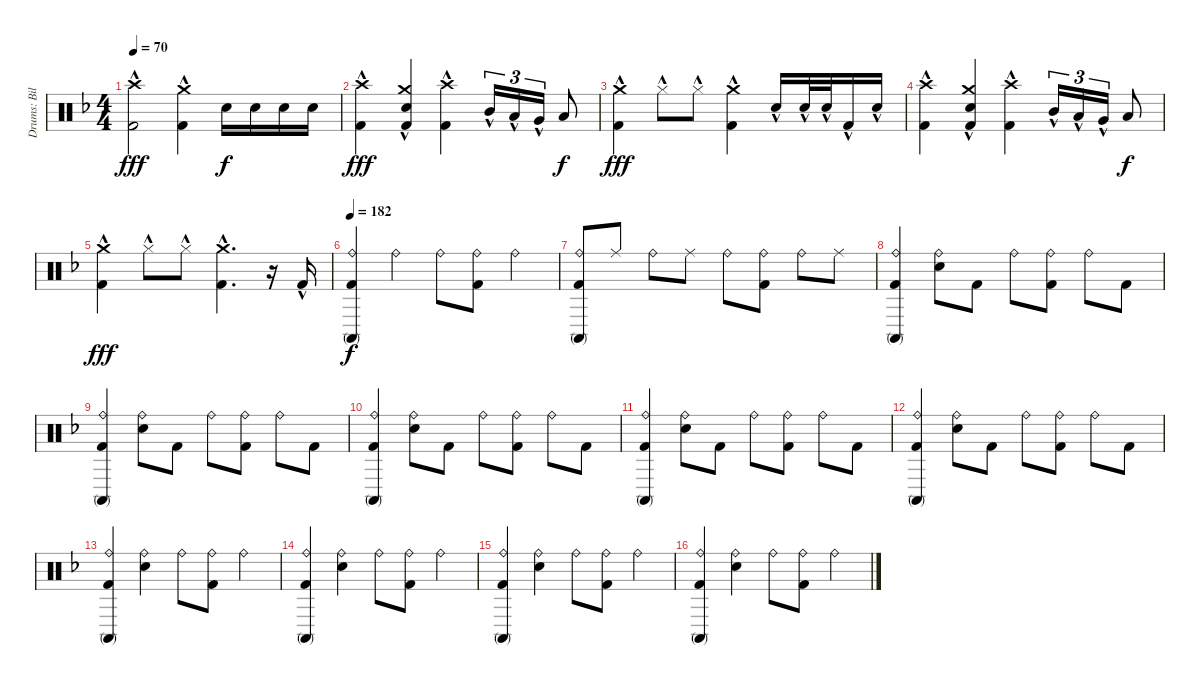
\track ("Drums: Bill" "Drums: Bil") {instrument percussion}
\staff {score}
\articulation defaults
\ts (4 4)
\tempo 70
\clef neutral
\ks f
("Crash high (hit)"{hac} "Kick (hit) 2"{hac}).2{dy fff} ("Crash medium (hit)"{hac} "Kick (hit) 2"{hac}).4 "Electric Snare (hit)".16{dy f} "Electric Snare (hit)".16 "Electric Snare (hit)".16 "Snare (hit) 2".16 |
("Crash high (hit)"{hac} "Kick (hit) 2"{hac}).4{dy fff} ("Crash medium (hit)"{hac} "Snare (hit) 2"{hac} "Kick (hit) 2"{hac}).4 ("Crash high (hit)"{hac} "Kick (hit) 2"{hac}).4 "Mid Tom (hit)"{hac}.16{tu (3 2)} "Low Tom (hit)"{hac}.16{tu (3 2)} "Very Low Tom (hit)"{hac}.16{tu (3 2)} "Low Floor Tom (hit)".8{dy f} |
("Crash medium (hit)"{hac} "Kick (hit) 2"{hac}).4{dy fff} "Hi-Hat (closed)"{hac}.8 "Hi-Hat (closed)"{hac}.8 ("Crash medium (hit)"{hac} "Kick (hit) 2"{hac}).4 "Snare (hit) 2"{hac}.16 "Snare (hit) 2"{hac}.32 "Snare (hit) 2"{hac}.32 "Kick (hit) 2"{hac}.16 "Electric Snare (hit)"{hac}.16 |
("Crash high (hit)"{hac} "Kick (hit) 2"{hac}).4 ("Crash medium (hit)"{hac} "Snare (hit) 2"{hac} "Kick (hit) 2"{hac}).4 ("Crash high (hit)"{hac} "Kick (hit) 2"{hac}).4 "Mid Tom (hit)"{hac}.16{tu (3 2)} "Low Tom (hit)"{hac}.16{tu (3 2)} "Very Low Tom (hit)"{hac}.16{tu (3 2)} "Low Floor Tom (hit)".8{dy f} |
("Crash medium (hit)"{hac} "Kick (hit) 2"{hac}).4{dy fff} "Hi-Hat (closed)"{hac}.8 "Hi-Hat (closed)"{hac}.8 ("Crash medium (hit)"{hac} "Kick (hit) 2"{hac}).4{d} r.16 "Kick (hit) 2"{hac}.16 |
\tempo 182
("Ride (bell)" "Conga high (mute)" "Kick (hit) 2").4{dy f} "Ride (bell)".4 "Ride (bell)".8 ("Ride (bell)" "Kick (hit) 2").8 "Ride (bell)".4 |
("Ride (bell)" "Conga high (mute)" "Kick (hit) 2").8 "Ride (middle)".8 "Ride (bell)".8 "Ride (middle)".8 "Ride (bell)".8 ("Ride (bell)" "Kick (hit) 2").8 "Ride (bell)".8 "Ride (middle)".8 |
("Ride (bell)" "Conga high (mute)" "Kick (hit) 2").4 ("Ride (bell)" "Snare (hit) 2").8 "Kick (hit) 2".8 "Ride (bell)".8 ("Ride (bell)" "Kick (hit) 2").8 "Ride (bell)".8 "Kick (hit) 2".8 |
("Ride (bell)" "Conga high (mute)" "Kick (hit) 2").4 ("Ride (bell)" "Snare (hit) 2").8 "Kick (hit) 2".8 "Ride (bell)".8 ("Ride (bell)" "Kick (hit) 2").8 "Ride (bell)".8 "Kick (hit) 2".8 |
("Ride (bell)" "Conga high (mute)" "Kick (hit) 2").4 ("Ride (bell)" "Snare (hit) 2").8 "Kick (hit) 2".8 "Ride (bell)".8 ("Ride (bell)" "Kick (hit) 2").8 "Ride (bell)".8 "Kick (hit) 2".8 |
("Ride (bell)" "Conga high (mute)" "Kick (hit) 2").4 ("Ride (bell)" "Snare (hit) 2").8 "Kick (hit) 2".8 "Ride (bell)".8 ("Ride (bell)" "Kick (hit) 2").8 "Ride (bell)".8 "Kick (hit) 2".8 |
("Ride (bell)" "Conga high (mute)" "Kick (hit) 2").4 ("Ride (bell)" "Snare (hit) 2").8 "Kick (hit) 2".8 "Ride (bell)".8 ("Ride (bell)" "Kick (hit) 2").8 "Ride (bell)".8 "Kick (hit) 2".8 |
("Ride (bell)" "Conga high (mute)" "Kick (hit) 2").4 ("Ride (bell)" "Snare (hit) 2").4 "Ride (bell)".8 ("Ride (bell)" "Kick (hit) 2").8 "Ride (bell)".4 |
("Ride (bell)" "Conga high (mute)" "Kick (hit) 2").4 ("Ride (bell)" "Snare (hit) 2").4 "Ride (bell)".8 ("Ride (bell)" "Kick (hit) 2").8 "Ride (bell)".4 |
("Ride (bell)" "Conga high (mute)" "Kick (hit) 2").4 ("Ride (bell)" "Snare (hit) 2").4 "Ride (bell)".8 ("Ride (bell)" "Kick (hit) 2").8 "Ride (bell)".4 |
("Ride (bell)" "Conga high (mute)" "Kick (hit) 2").4 ("Ride (bell)" "Snare (hit) 2").4 "Ride (bell)".8 ("Ride (bell)" "Kick (hit) 2").8 "Ride (bell)".4
